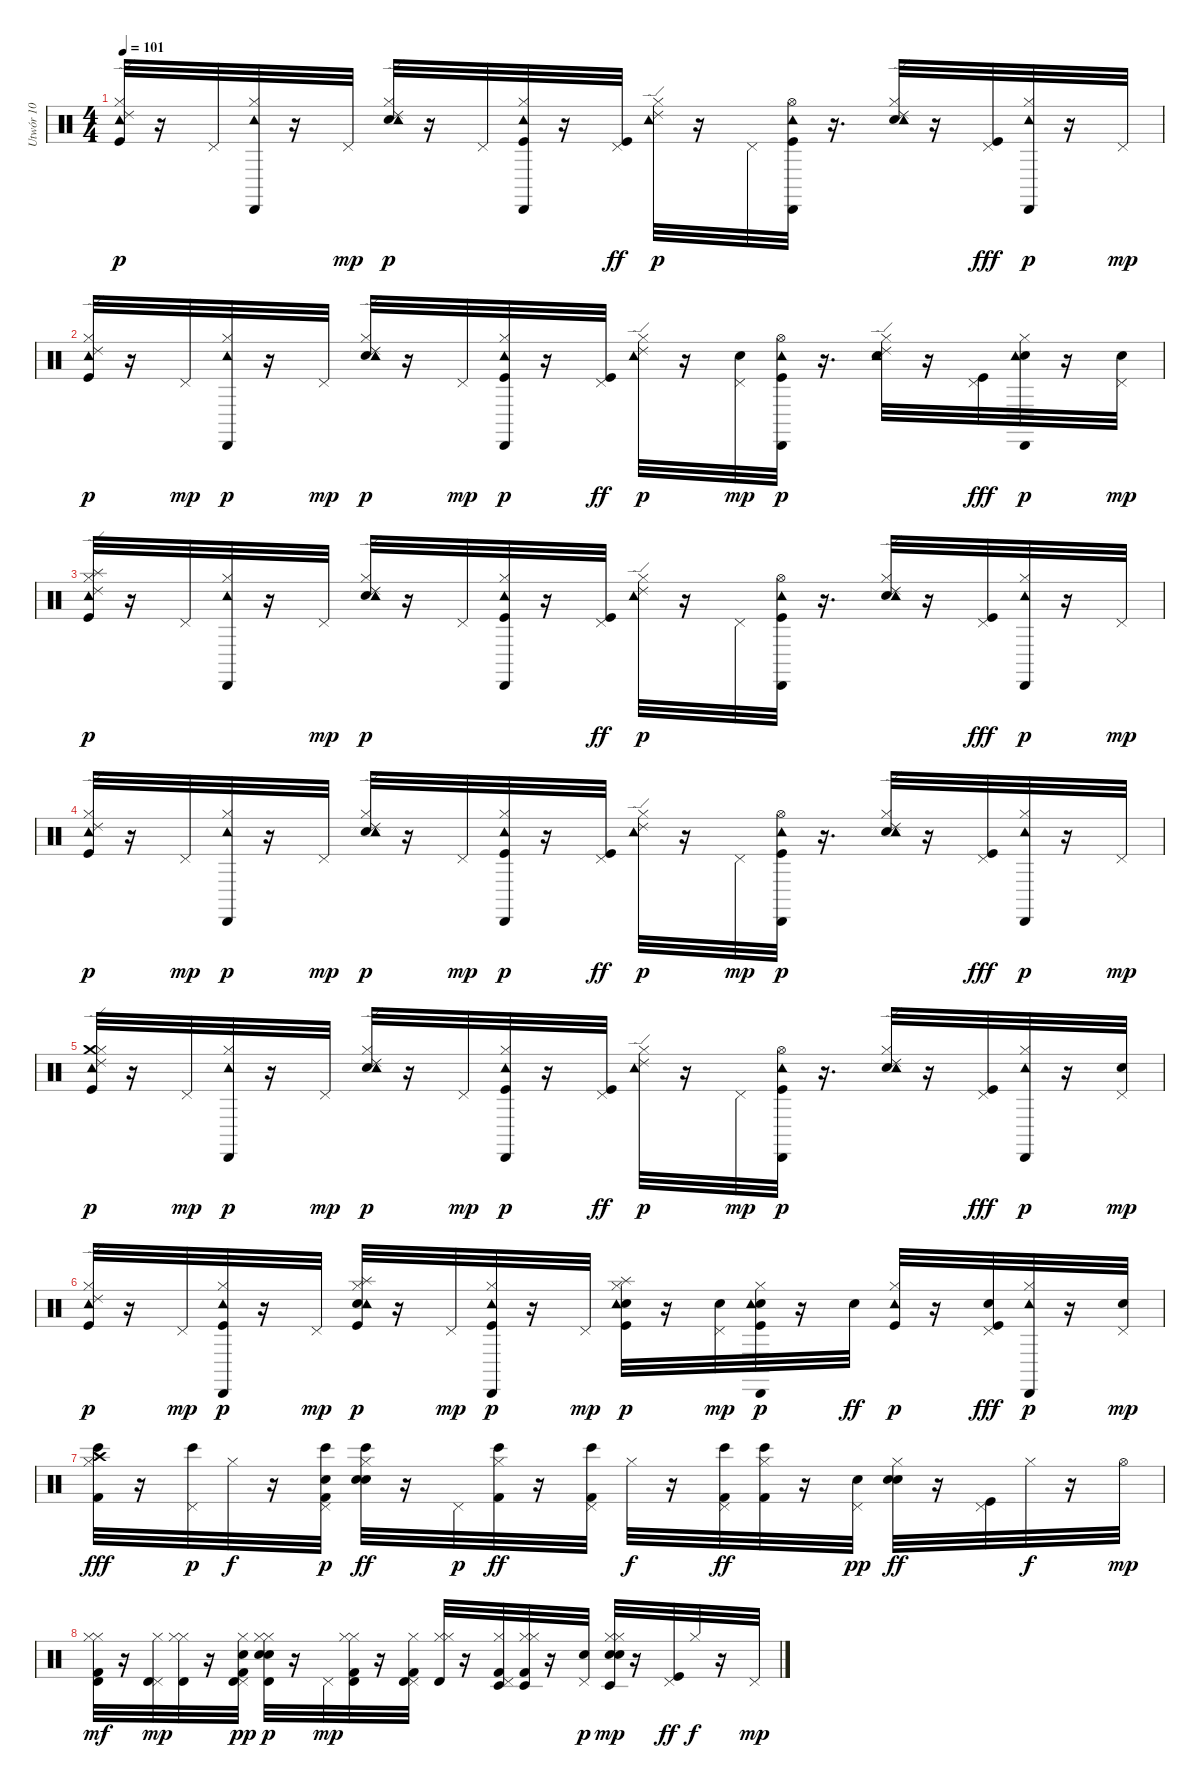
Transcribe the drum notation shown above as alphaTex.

\track ("Utwór 10" "Utwór 10") {instrument percussion}
\staff {score}
\articulation defaults
\ts (4 4)
\tempo 101
\clef neutral
\ks c
("Ride (edge) 2" "Hi-Hat (closed)" "Kick (hit)" "Tambourine (hit)").32{dy p} r.16 "Pedal Hi-Hat (hit)".32 ("Cabasa (hit)" "Hi-Hat (closed)" "Tambourine (hit)").32 r.16 "Pedal Hi-Hat (hit)".32{dy mp} ("Ride (edge) 2" "Electric Snare (hit)" "Hi-Hat (closed)" "Tambourine (hit)").32{dy p} r.16 "Pedal Hi-Hat (hit)".32 ("Cabasa (hit)" "Hi-Hat (closed)" "Kick (hit)" "Tambourine (hit)").32 r.16 ("Pedal Hi-Hat (hit)" "Kick (hit)").32{dy ff} ("Ride (edge) 2" "Hi-Hat (closed)" "Tambourine (hit)").32{dy p} r.16 "Pedal Hi-Hat (hit)".32 ("Cabasa (hit)" "Hi-Hat (open)" "Kick (hit)" "Tambourine (hit)").32 r.16{d} ("Ride (edge) 2" "Electric Snare (hit)" "Hi-Hat (closed)" "Tambourine (hit)").32 r.16 ("Pedal Hi-Hat (hit)" "Kick (hit)").32{dy fff} ("Cabasa (hit)" "Hi-Hat (closed)" "Tambourine (hit)").32{dy p} r.16 "Pedal Hi-Hat (hit)".32{dy mp} |
("Ride (edge) 2" "Hi-Hat (closed)" "Kick (hit)" "Tambourine (hit)").32{dy p} r.16 "Pedal Hi-Hat (hit)".32{dy mp} ("Cabasa (hit)" "Hi-Hat (closed)" "Tambourine (hit)").32{dy p} r.16 "Pedal Hi-Hat (hit)".32{dy mp} ("Ride (edge) 2" "Electric Snare (hit)" "Hi-Hat (closed)" "Tambourine (hit)").32{dy p} r.16 "Pedal Hi-Hat (hit)".32{dy mp} ("Cabasa (hit)" "Hi-Hat (closed)" "Kick (hit)" "Tambourine (hit)").32{dy p} r.16 ("Pedal Hi-Hat (hit)" "Kick (hit)").32{dy ff} ("Ride (edge) 2" "Hi-Hat (closed)" "Tambourine (hit)").32{dy p} r.16 ("Electric Snare (hit)" "Pedal Hi-Hat (hit)").32{dy mp} ("Cabasa (hit)" "Hi-Hat (open)" "Kick (hit)" "Tambourine (hit)").32{dy p} r.16{d} ("Ride (edge) 2" "Electric Snare (hit)" "Hi-Hat (closed)" "Tambourine (hit)").32 r.16 ("Pedal Hi-Hat (hit)" "Kick (hit)").32{dy fff} ("Cabasa (hit)" "Electric Snare (hit)" "Hi-Hat (closed)" "Tambourine (hit)").32{dy p} r.16 ("Electric Snare (hit)" "Pedal Hi-Hat (hit)").32{dy mp} |
("Ride (edge) 2" "Splash (hit)" "Hi-Hat (closed)" "Kick (hit)" "Tambourine (hit)").32{dy p} r.16 "Pedal Hi-Hat (hit)".32 ("Cabasa (hit)" "Hi-Hat (closed)" "Tambourine (hit)").32 r.16 "Pedal Hi-Hat (hit)".32{dy mp} ("Ride (edge) 2" "Electric Snare (hit)" "Hi-Hat (closed)" "Tambourine (hit)").32{dy p} r.16 "Pedal Hi-Hat (hit)".32 ("Cabasa (hit)" "Hi-Hat (closed)" "Kick (hit)" "Tambourine (hit)").32 r.16 ("Pedal Hi-Hat (hit)" "Kick (hit)").32{dy ff} ("Ride (edge) 2" "Hi-Hat (closed)" "Tambourine (hit)").32{dy p} r.16 "Pedal Hi-Hat (hit)".32 ("Cabasa (hit)" "Hi-Hat (open)" "Kick (hit)" "Tambourine (hit)").32 r.16{d} ("Ride (edge) 2" "Electric Snare (hit)" "Hi-Hat (closed)" "Tambourine (hit)").32 r.16 ("Pedal Hi-Hat (hit)" "Kick (hit)").32{dy fff} ("Cabasa (hit)" "Hi-Hat (closed)" "Tambourine (hit)").32{dy p} r.16 "Pedal Hi-Hat (hit)".32{dy mp} |
("Ride (edge) 2" "Hi-Hat (closed)" "Kick (hit)" "Tambourine (hit)").32{dy p} r.16 "Pedal Hi-Hat (hit)".32{dy mp} ("Cabasa (hit)" "Hi-Hat (closed)" "Tambourine (hit)").32{dy p} r.16 "Pedal Hi-Hat (hit)".32{dy mp} ("Ride (edge) 2" "Electric Snare (hit)" "Hi-Hat (closed)" "Tambourine (hit)").32{dy p} r.16 "Pedal Hi-Hat (hit)".32{dy mp} ("Cabasa (hit)" "Hi-Hat (closed)" "Kick (hit)" "Tambourine (hit)").32{dy p} r.16 ("Pedal Hi-Hat (hit)" "Kick (hit)").32{dy ff} ("Ride (edge) 2" "Hi-Hat (closed)" "Tambourine (hit)").32{dy p} r.16 "Pedal Hi-Hat (hit)".32{dy mp} ("Cabasa (hit)" "Hi-Hat (open)" "Kick (hit)" "Tambourine (hit)").32{dy p} r.16{d} ("Ride (edge) 2" "Electric Snare (hit)" "Hi-Hat (closed)" "Tambourine (hit)").32 r.16 ("Pedal Hi-Hat (hit)" "Kick (hit)").32{dy fff} ("Cabasa (hit)" "Hi-Hat (closed)" "Tambourine (hit)").32{dy p} r.16 "Pedal Hi-Hat (hit)".32{dy mp} |
("Ride (edge) 2" "Crash medium (hit)" "Hi-Hat (closed)" "Kick (hit)" "Tambourine (hit)").32{dy p} r.16 "Pedal Hi-Hat (hit)".32{dy mp} ("Cabasa (hit)" "Hi-Hat (closed)" "Tambourine (hit)").32{dy p} r.16 "Pedal Hi-Hat (hit)".32{dy mp} ("Ride (edge) 2" "Electric Snare (hit)" "Hi-Hat (closed)" "Tambourine (hit)").32{dy p} r.16 "Pedal Hi-Hat (hit)".32{dy mp} ("Cabasa (hit)" "Hi-Hat (closed)" "Kick (hit)" "Tambourine (hit)").32{dy p} r.16 ("Pedal Hi-Hat (hit)" "Kick (hit)").32{dy ff} ("Ride (edge) 2" "Hi-Hat (closed)" "Tambourine (hit)").32{dy p} r.16 "Pedal Hi-Hat (hit)".32{dy mp} ("Cabasa (hit)" "Hi-Hat (open)" "Kick (hit)" "Tambourine (hit)").32{dy p} r.16{d} ("Ride (edge) 2" "Electric Snare (hit)" "Hi-Hat (closed)" "Tambourine (hit)").32 r.16 ("Pedal Hi-Hat (hit)" "Kick (hit)").32{dy fff} ("Cabasa (hit)" "Hi-Hat (closed)" "Tambourine (hit)").32{dy p} r.16 ("Electric Snare (hit)" "Pedal Hi-Hat (hit)").32{dy mp} |
("Ride (edge) 2" "Hi-Hat (closed)" "Kick (hit)" "Tambourine (hit)").32{dy p} r.16 "Pedal Hi-Hat (hit)".32{dy mp} ("Cabasa (hit)" "Hi-Hat (closed)" "Kick (hit)" "Tambourine (hit)").32{dy p} r.16 "Pedal Hi-Hat (hit)".32{dy mp} ("Splash (hit)" "Electric Snare (hit)" "Hi-Hat (closed)" "Kick (hit)" "Tambourine (hit)").32{dy p} r.16 "Pedal Hi-Hat (hit)".32{dy mp} ("Cabasa (hit)" "Hi-Hat (closed)" "Kick (hit)" "Tambourine (hit)").32{dy p} r.16 "Pedal Hi-Hat (hit)".32{dy mp} ("Splash (hit)" "Electric Snare (hit)" "Hi-Hat (closed)" "Kick (hit)" "Tambourine (hit)").32{dy p} r.16 ("Electric Snare (hit)" "Pedal Hi-Hat (hit)").32{dy mp} ("Cabasa (hit)" "Electric Snare (hit)" "Hi-Hat (closed)" "Kick (hit)" "Tambourine (hit)").32{dy p} r.16 "Electric Snare (hit)".32{dy ff} ("Hi-Hat (closed)" "Kick (hit)" "Tambourine (hit)").32{dy p} r.16 ("Electric Snare (hit)" "Pedal Hi-Hat (hit)" "Kick (hit)").32{dy fff} ("Cabasa (hit)" "Hi-Hat (closed)" "Tambourine (hit)").32{dy p} r.16 ("Electric Snare (hit)" "Pedal Hi-Hat (hit)").32{dy mp} |
("Crash high (hit)" "Bongo High (hit)" "Hi-Hat (closed)" "Kick (hit) 2").32{dy fff} r.16 ("Bongo High (hit)" "Pedal Hi-Hat (hit)").32{dy p} "Hi-Hat (closed)".32{dy f} r.16 ("Bongo High (hit)" "Pedal Hi-Hat (hit)" "Kick (hit) 2" "Electric Snare (hit)").32{dy p} ("Electric Snare (hit)" "Bongo High (hit)" "Electric Snare (hit)" "Hi-Hat (closed)").32{dy ff} r.16 "Pedal Hi-Hat (hit)".32{dy p} ("Bongo High (hit)" "Hi-Hat (closed)" "Kick (hit) 2").32{dy ff} r.16 ("Bongo High (hit)" "Pedal Hi-Hat (hit)" "Kick (hit) 2").32 "Hi-Hat (closed)".32{dy f} r.16 ("Bongo High (hit)" "Pedal Hi-Hat (hit)" "Kick (hit) 2").32{dy ff} ("Bongo High (hit)" "Hi-Hat (closed)" "Kick (hit) 2").32 r.16 ("Pedal Hi-Hat (hit)" "Electric Snare (hit)").32{dy pp} ("Electric Snare (hit)" "Electric Snare (hit)" "Hi-Hat (closed)").32{dy ff} r.16 ("Pedal Hi-Hat (hit)" "Kick (hit)").32 "Hi-Hat (closed)".32{dy f} r.16 "Hi-Hat (open)".32{dy mp} |
("Hi-Hat (closed)" "Kick (hit) 2" "Hi-Hat (closed)" "Timbale high (hit)").32{dy mf} r.16 ("Pedal Hi-Hat (hit)" "Hi-Hat (closed)" "Timbale high (hit)").32{dy mp} ("Hi-Hat (closed)" "Hi-Hat (closed)" "Timbale high (hit)").32 r.16 ("Pedal Hi-Hat (hit)" "Kick (hit) 2" "Hi-Hat (closed)" "Timbale high (hit)" "Electric Snare (hit)").32{dy pp} ("Electric Snare (hit)" "Electric Snare (hit)" "Hi-Hat (closed)" "Hi-Hat (closed)" "Timbale high (hit)").32{dy p} r.16 "Pedal Hi-Hat (hit)".32{dy mp} ("Hi-Hat (closed)" "Kick (hit) 2" "Hi-Hat (closed)" "Timbale high (hit)").32 r.16 ("Pedal Hi-Hat (hit)" "Kick (hit) 2" "Hi-Hat (closed)" "Timbale high (hit)").32 ("Hi-Hat (closed)" "Hi-Hat (closed)" "Timbale high (hit)").32 r.16 ("Pedal Hi-Hat (hit)" "Kick (hit) 2" "Hi-Hat (closed)" "Timbale low (hit)").32 ("Hi-Hat (closed)" "Kick (hit) 2" "Hi-Hat (closed)" "Timbale low (hit)").32 r.16 ("Pedal Hi-Hat (hit)" "Electric Snare (hit)").32{dy p} ("Electric Snare (hit)" "Electric Snare (hit)" "Hi-Hat (closed)" "Hi-Hat (closed)" "Timbale low (hit)").32{dy mp} r.16 ("Pedal Hi-Hat (hit)" "Kick (hit)").32{dy ff} "Hi-Hat (closed)".32{dy f} r.16 "Pedal Hi-Hat (hit)".32{dy mp}
